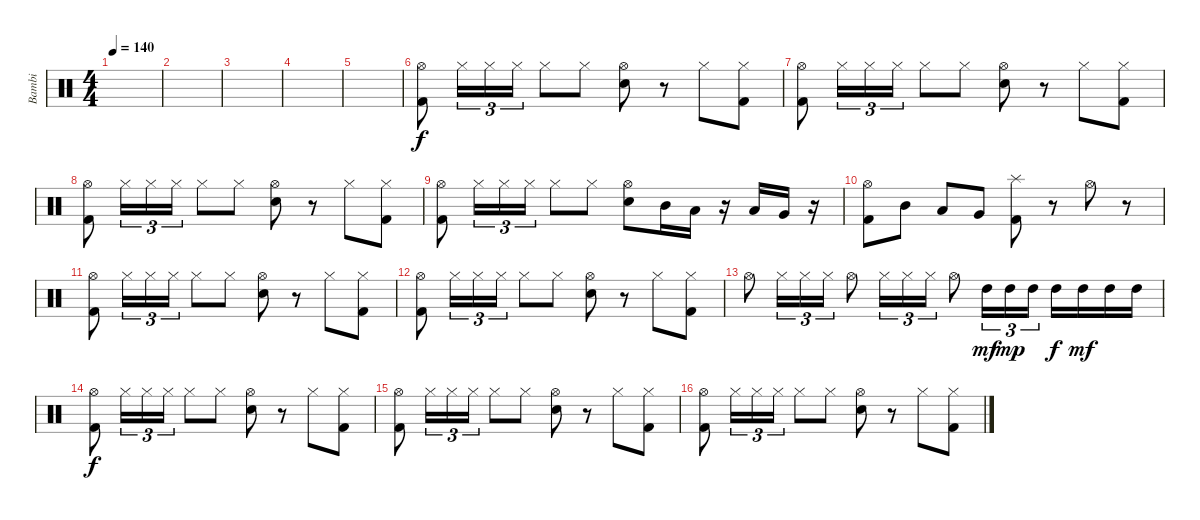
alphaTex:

\track ("Bambi" "Bambi") {instrument percussion}
\staff {score}
\articulation defaults
\ts (4 4)
\tempo 140
\clef neutral
\ks c
|
|
|
|
|
("Hi-Hat (open)" "Kick (hit) 2").8 "Hi-Hat (closed)".16{tu (3 2)} "Hi-Hat (closed)".16{tu (3 2)} "Hi-Hat (closed)".16{tu (3 2)} "Hi-Hat (closed)".8 "Hi-Hat (closed)".8 ("Hi-Hat (open)" "Electric Snare (hit)").8 r.8 "Hi-Hat (closed)".8 ("Hi-Hat (closed)" "Kick (hit) 2").8 |
("Hi-Hat (open)" "Kick (hit) 2").8 "Hi-Hat (closed)".16{tu (3 2)} "Hi-Hat (closed)".16{tu (3 2)} "Hi-Hat (closed)".16{tu (3 2)} "Hi-Hat (closed)".8 "Hi-Hat (closed)".8 ("Hi-Hat (open)" "Electric Snare (hit)").8 r.8 "Hi-Hat (closed)".8 ("Hi-Hat (closed)" "Kick (hit) 2").8 |
("Hi-Hat (open)" "Kick (hit) 2").8 "Hi-Hat (closed)".16{tu (3 2)} "Hi-Hat (closed)".16{tu (3 2)} "Hi-Hat (closed)".16{tu (3 2)} "Hi-Hat (closed)".8 "Hi-Hat (closed)".8 ("Hi-Hat (open)" "Electric Snare (hit)").8 r.8 "Hi-Hat (closed)".8 ("Hi-Hat (closed)" "Kick (hit) 2").8 |
("Hi-Hat (open)" "Kick (hit) 2").8 "Hi-Hat (closed)".16{tu (3 2)} "Hi-Hat (closed)".16{tu (3 2)} "Hi-Hat (closed)".16{tu (3 2)} "Hi-Hat (closed)".8 "Hi-Hat (closed)".8 ("Hi-Hat (open)" "Electric Snare (hit)").8 "Mid Tom (hit)".16 "Low Tom (hit)".16 r.16 "Low Tom (hit)".16 "Very Low Tom (hit)".16 r.16 |
("Hi-Hat (open)" "Kick (hit) 2").8 "Mid Tom (hit)".8 "Low Tom (hit)".8 "Very Low Tom (hit)".8 ("Splash (hit)" "Kick (hit) 2").8 r.8 "Hi-Hat (open)".8 r.8 |
("Hi-Hat (open)" "Kick (hit) 2").8 "Hi-Hat (closed)".16{tu (3 2)} "Hi-Hat (closed)".16{tu (3 2)} "Hi-Hat (closed)".16{tu (3 2)} "Hi-Hat (closed)".8 "Hi-Hat (closed)".8 ("Hi-Hat (open)" "Electric Snare (hit)").8 r.8 "Hi-Hat (closed)".8 ("Hi-Hat (closed)" "Kick (hit) 2").8 |
("Hi-Hat (open)" "Kick (hit) 2").8 "Hi-Hat (closed)".16{tu (3 2)} "Hi-Hat (closed)".16{tu (3 2)} "Hi-Hat (closed)".16{tu (3 2)} "Hi-Hat (closed)".8 "Hi-Hat (closed)".8 ("Hi-Hat (open)" "Electric Snare (hit)").8 r.8 "Hi-Hat (closed)".8 ("Hi-Hat (closed)" "Kick (hit) 2").8 |
"Hi-Hat (open)".8 "Hi-Hat (closed)".16{tu (3 2)} "Hi-Hat (closed)".16{tu (3 2)} "Hi-Hat (closed)".16{tu (3 2)} "Hi-Hat (open)".8 "Hi-Hat (closed)".16{tu (3 2)} "Hi-Hat (closed)".16{tu (3 2)} "Hi-Hat (closed)".16{tu (3 2)} "Hi-Hat (open)".8 "High Tom (hit)".16{tu (3 2) dy mf} "High Tom (hit)".16{tu (3 2) dy mp} "High Tom (hit)".16{tu (3 2)} "High Tom (hit)".16{dy f} "High Tom (hit)".16{dy mf} "High Tom (hit)".16 "High Tom (hit)".16 |
("Hi-Hat (open)" "Kick (hit) 2").8{dy f} "Hi-Hat (closed)".16{tu (3 2)} "Hi-Hat (closed)".16{tu (3 2)} "Hi-Hat (closed)".16{tu (3 2)} "Hi-Hat (closed)".8 "Hi-Hat (closed)".8 ("Hi-Hat (open)" "Electric Snare (hit)").8 r.8 "Hi-Hat (closed)".8 ("Hi-Hat (closed)" "Kick (hit) 2").8 |
("Hi-Hat (open)" "Kick (hit) 2").8 "Hi-Hat (closed)".16{tu (3 2)} "Hi-Hat (closed)".16{tu (3 2)} "Hi-Hat (closed)".16{tu (3 2)} "Hi-Hat (closed)".8 "Hi-Hat (closed)".8 ("Hi-Hat (open)" "Electric Snare (hit)").8 r.8 "Hi-Hat (closed)".8 ("Hi-Hat (closed)" "Kick (hit) 2").8 |
("Hi-Hat (open)" "Kick (hit) 2").8 "Hi-Hat (closed)".16{tu (3 2)} "Hi-Hat (closed)".16{tu (3 2)} "Hi-Hat (closed)".16{tu (3 2)} "Hi-Hat (closed)".8 "Hi-Hat (closed)".8 ("Hi-Hat (open)" "Electric Snare (hit)").8 r.8 "Hi-Hat (closed)".8 ("Hi-Hat (closed)" "Kick (hit) 2").8
